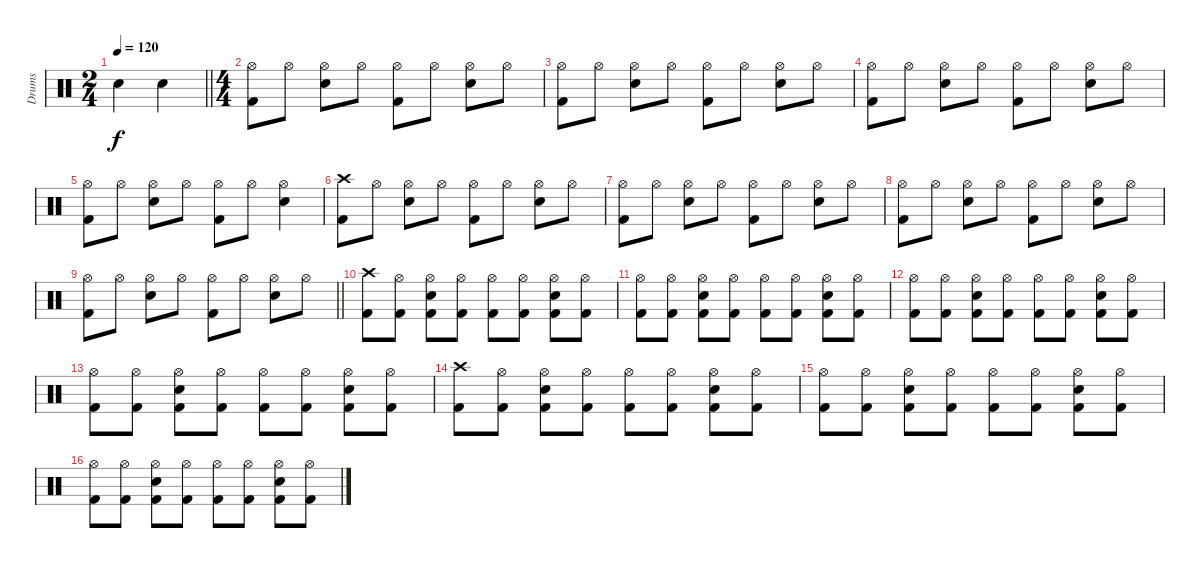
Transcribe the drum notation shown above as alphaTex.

\track ("Drums" "Drums") {instrument percussion}
\staff {score}
\articulation defaults
\ts (2 4)
\tempo 120
\clef neutral
\barLineRight lightlight
\ks c "Electric Snare (hit)".4{dy f} "Electric Snare (hit)".4
|
\ts (4 4)
("Hi-Hat (open)" "Kick (hit) 2").8 "Hi-Hat (open)".8 ("Hi-Hat (open)" "Electric Snare (hit)").8 "Hi-Hat (open)".8 ("Hi-Hat (open)" "Kick (hit) 2").8 "Hi-Hat (open)".8 ("Hi-Hat (open)" "Electric Snare (hit)").8 "Hi-Hat (open)".8 |
("Hi-Hat (open)" "Kick (hit) 2").8 "Hi-Hat (open)".8 ("Hi-Hat (open)" "Electric Snare (hit)").8 "Hi-Hat (open)".8 ("Hi-Hat (open)" "Kick (hit) 2").8 "Hi-Hat (open)".8 ("Hi-Hat (open)" "Electric Snare (hit)").8 "Hi-Hat (open)".8 |
("Hi-Hat (open)" "Kick (hit) 2").8 "Hi-Hat (open)".8 ("Hi-Hat (open)" "Electric Snare (hit)").8 "Hi-Hat (open)".8 ("Hi-Hat (open)" "Kick (hit) 2").8 "Hi-Hat (open)".8 ("Hi-Hat (open)" "Electric Snare (hit)").8 "Hi-Hat (open)".8 |
("Hi-Hat (open)" "Kick (hit) 2").8 "Hi-Hat (open)".8 ("Hi-Hat (open)" "Electric Snare (hit)").8 "Hi-Hat (open)".8 ("Hi-Hat (open)" "Kick (hit) 2").8 "Hi-Hat (open)".8 ("Hi-Hat (open)" "Electric Snare (hit)").4 |
("Crash high (hit)" "Kick (hit) 2").8 "Hi-Hat (open)".8 ("Hi-Hat (open)" "Electric Snare (hit)").8 "Hi-Hat (open)".8 ("Hi-Hat (open)" "Kick (hit) 2").8 "Hi-Hat (open)".8 ("Hi-Hat (open)" "Electric Snare (hit)").8 "Hi-Hat (open)".8 |
("Hi-Hat (open)" "Kick (hit) 2").8 "Hi-Hat (open)".8 ("Hi-Hat (open)" "Electric Snare (hit)").8 "Hi-Hat (open)".8 ("Hi-Hat (open)" "Kick (hit) 2").8 "Hi-Hat (open)".8 ("Hi-Hat (open)" "Electric Snare (hit)").8 "Hi-Hat (open)".8 |
("Hi-Hat (open)" "Kick (hit) 2").8 "Hi-Hat (open)".8 ("Hi-Hat (open)" "Electric Snare (hit)").8 "Hi-Hat (open)".8 ("Hi-Hat (open)" "Kick (hit) 2").8 "Hi-Hat (open)".8 ("Hi-Hat (open)" "Electric Snare (hit)").8 "Hi-Hat (open)".8 |
\barLineRight lightlight
("Hi-Hat (open)" "Kick (hit) 2").8 "Hi-Hat (open)".8 ("Hi-Hat (open)" "Electric Snare (hit)").8 "Hi-Hat (open)".8 ("Hi-Hat (open)" "Kick (hit) 2").8 "Hi-Hat (open)".8 ("Hi-Hat (open)" "Electric Snare (hit)").8 "Hi-Hat (open)".8 |
("Crash high (hit)" "Kick (hit) 2").8 ("Hi-Hat (open)" "Kick (hit) 2").8 ("Hi-Hat (open)" "Electric Snare (hit)" "Kick (hit) 2").8 ("Hi-Hat (open)" "Kick (hit) 2").8 ("Hi-Hat (open)" "Kick (hit) 2").8 ("Hi-Hat (open)" "Kick (hit) 2").8 ("Hi-Hat (open)" "Electric Snare (hit)" "Kick (hit) 2").8 ("Hi-Hat (open)" "Kick (hit) 2").8 |
("Hi-Hat (open)" "Kick (hit) 2").8 ("Hi-Hat (open)" "Kick (hit) 2").8 ("Hi-Hat (open)" "Electric Snare (hit)" "Kick (hit) 2").8 ("Hi-Hat (open)" "Kick (hit) 2").8 ("Hi-Hat (open)" "Kick (hit) 2").8 ("Hi-Hat (open)" "Kick (hit) 2").8 ("Hi-Hat (open)" "Electric Snare (hit)" "Kick (hit) 2").8 ("Hi-Hat (open)" "Kick (hit) 2").8 |
("Hi-Hat (open)" "Kick (hit) 2").8 ("Hi-Hat (open)" "Kick (hit) 2").8 ("Hi-Hat (open)" "Electric Snare (hit)" "Kick (hit) 2").8 ("Hi-Hat (open)" "Kick (hit) 2").8 ("Hi-Hat (open)" "Kick (hit) 2").8 ("Hi-Hat (open)" "Kick (hit) 2").8 ("Hi-Hat (open)" "Electric Snare (hit)" "Kick (hit) 2").8 ("Hi-Hat (open)" "Kick (hit) 2").8 |
("Hi-Hat (open)" "Kick (hit) 2").8 ("Hi-Hat (open)" "Kick (hit) 2").8 ("Hi-Hat (open)" "Electric Snare (hit)" "Kick (hit) 2").8 ("Hi-Hat (open)" "Kick (hit) 2").8 ("Hi-Hat (open)" "Kick (hit) 2").8 ("Hi-Hat (open)" "Kick (hit) 2").8 ("Hi-Hat (open)" "Electric Snare (hit)" "Kick (hit) 2").8 ("Hi-Hat (open)" "Kick (hit) 2").8 |
("Crash high (hit)" "Kick (hit) 2").8 ("Hi-Hat (open)" "Kick (hit) 2").8 ("Hi-Hat (open)" "Electric Snare (hit)" "Kick (hit) 2").8 ("Hi-Hat (open)" "Kick (hit) 2").8 ("Hi-Hat (open)" "Kick (hit) 2").8 ("Hi-Hat (open)" "Kick (hit) 2").8 ("Hi-Hat (open)" "Electric Snare (hit)" "Kick (hit) 2").8 ("Hi-Hat (open)" "Kick (hit) 2").8 |
("Hi-Hat (open)" "Kick (hit) 2").8 ("Hi-Hat (open)" "Kick (hit) 2").8 ("Hi-Hat (open)" "Electric Snare (hit)" "Kick (hit) 2").8 ("Hi-Hat (open)" "Kick (hit) 2").8 ("Hi-Hat (open)" "Kick (hit) 2").8 ("Hi-Hat (open)" "Kick (hit) 2").8 ("Hi-Hat (open)" "Electric Snare (hit)" "Kick (hit) 2").8 ("Hi-Hat (open)" "Kick (hit) 2").8 |
("Hi-Hat (open)" "Kick (hit) 2").8 ("Hi-Hat (open)" "Kick (hit) 2").8 ("Hi-Hat (open)" "Electric Snare (hit)" "Kick (hit) 2").8 ("Hi-Hat (open)" "Kick (hit) 2").8 ("Hi-Hat (open)" "Kick (hit) 2").8 ("Hi-Hat (open)" "Kick (hit) 2").8 ("Hi-Hat (open)" "Electric Snare (hit)" "Kick (hit) 2").8 ("Hi-Hat (open)" "Kick (hit) 2").8
